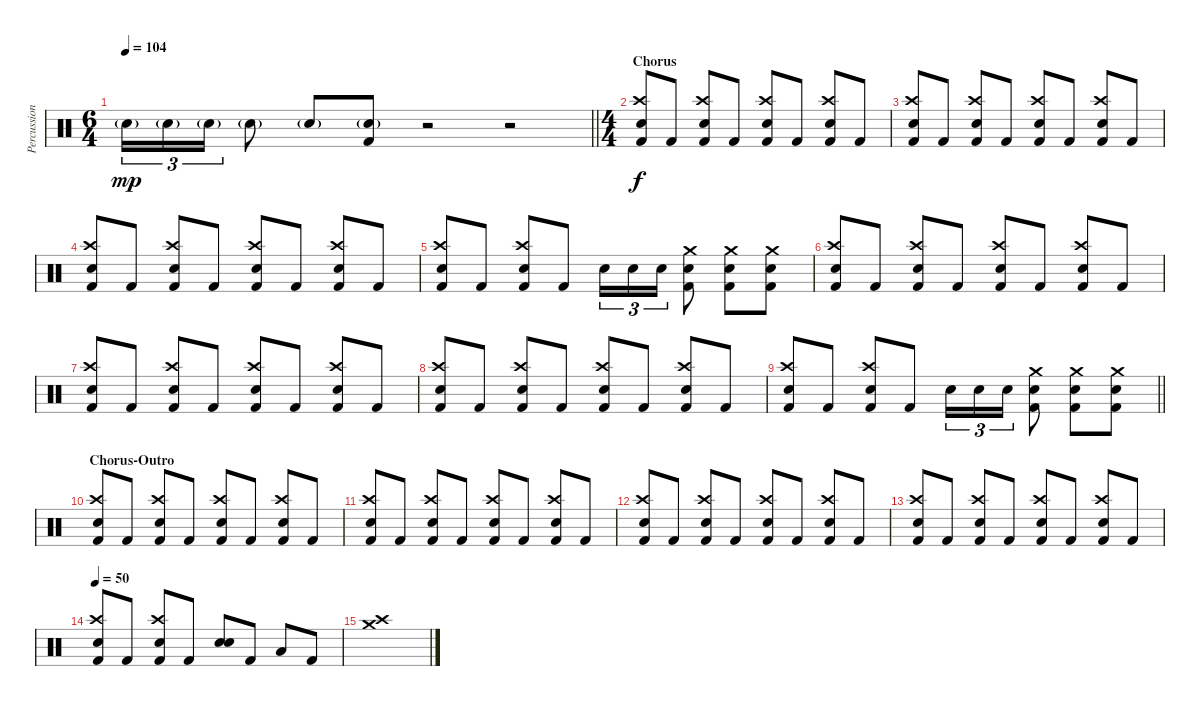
\track ("Percussion" "Percussion") {instrument percussion}
\staff {score}
\articulation defaults
\ts (6 4)
\tempo 104
\clef neutral
\barLineRight lightlight
\ks c "Electric Snare (hit)"{g}.16{tu (3 2) dy mp} "Electric Snare (hit)"{g}.16{tu (3 2)} "Electric Snare (hit)"{g}.16{tu (3 2)} "Electric Snare (hit)"{g}.8 "Electric Snare (hit)"{g}.8
("Electric Snare (hit)"{g} "Kick (hit) 2").8 r.2 r.2 |
\ts (4 4)
\section ("" "Chorus")
("Crash high (hit)" "Snare (hit) 2" "Kick (hit) 2").8{dy f} "Kick (hit) 2".8 ("Crash high (hit)" "Snare (hit) 2" "Kick (hit) 2").8 "Kick (hit) 2".8 ("Crash high (hit)" "Snare (hit) 2" "Kick (hit) 2").8 "Kick (hit) 2".8 ("Crash high (hit)" "Snare (hit) 2" "Kick (hit) 2").8 "Kick (hit) 2".8 |
("Crash high (hit)" "Snare (hit) 2" "Kick (hit) 2").8 "Kick (hit) 2".8 ("Crash high (hit)" "Snare (hit) 2" "Kick (hit) 2").8 "Kick (hit) 2".8 ("Crash high (hit)" "Snare (hit) 2" "Kick (hit) 2").8 "Kick (hit) 2".8 ("Crash high (hit)" "Snare (hit) 2" "Kick (hit) 2").8 "Kick (hit) 2".8 |
("Crash high (hit)" "Snare (hit) 2" "Kick (hit) 2").8 "Kick (hit) 2".8 ("Crash high (hit)" "Snare (hit) 2" "Kick (hit) 2").8 "Kick (hit) 2".8 ("Crash high (hit)" "Snare (hit) 2" "Kick (hit) 2").8 "Kick (hit) 2".8 ("Crash high (hit)" "Snare (hit) 2" "Kick (hit) 2").8 "Kick (hit) 2".8 |
("Crash high (hit)" "Snare (hit) 2" "Kick (hit) 2").8 "Kick (hit) 2".8 ("Crash high (hit)" "Snare (hit) 2" "Kick (hit) 2").8 "Kick (hit) 2".8 "Snare (hit) 2".16{tu (3 2)} "Snare (hit) 2".16{tu (3 2)} "Snare (hit) 2".16{tu (3 2)} ("Crash medium (hit)" "Snare (hit) 2" "Kick (hit) 2").8 ("Crash medium (hit)" "Snare (hit) 2" "Kick (hit) 2").8 ("Crash medium (hit)" "Snare (hit) 2" "Kick (hit) 2").8 |
("Crash high (hit)" "Snare (hit) 2" "Kick (hit) 2").8 "Kick (hit) 2".8 ("Crash high (hit)" "Snare (hit) 2" "Kick (hit) 2").8 "Kick (hit) 2".8 ("Crash high (hit)" "Snare (hit) 2" "Kick (hit) 2").8 "Kick (hit) 2".8 ("Crash high (hit)" "Snare (hit) 2" "Kick (hit) 2").8 "Kick (hit) 2".8 |
("Crash high (hit)" "Snare (hit) 2" "Kick (hit) 2").8 "Kick (hit) 2".8 ("Crash high (hit)" "Snare (hit) 2" "Kick (hit) 2").8 "Kick (hit) 2".8 ("Crash high (hit)" "Snare (hit) 2" "Kick (hit) 2").8 "Kick (hit) 2".8 ("Crash high (hit)" "Snare (hit) 2" "Kick (hit) 2").8 "Kick (hit) 2".8 |
("Crash high (hit)" "Snare (hit) 2" "Kick (hit) 2").8 "Kick (hit) 2".8 ("Crash high (hit)" "Snare (hit) 2" "Kick (hit) 2").8 "Kick (hit) 2".8 ("Crash high (hit)" "Snare (hit) 2" "Kick (hit) 2").8 "Kick (hit) 2".8 ("Crash high (hit)" "Snare (hit) 2" "Kick (hit) 2").8 "Kick (hit) 2".8 |
\barLineRight lightlight
("Crash high (hit)" "Snare (hit) 2" "Kick (hit) 2").8 "Kick (hit) 2".8 ("Crash high (hit)" "Snare (hit) 2" "Kick (hit) 2").8 "Kick (hit) 2".8 "Snare (hit) 2".16{tu (3 2)} "Snare (hit) 2".16{tu (3 2)} "Snare (hit) 2".16{tu (3 2)} ("Crash medium (hit)" "Snare (hit) 2" "Kick (hit) 2").8 ("Crash medium (hit)" "Snare (hit) 2" "Kick (hit) 2").8 ("Crash medium (hit)" "Snare (hit) 2" "Kick (hit) 2").8 |
\section ("" "Chorus-Outro")
("Crash high (hit)" "Snare (hit) 2" "Kick (hit) 2").8 "Kick (hit) 2".8 ("Crash high (hit)" "Snare (hit) 2" "Kick (hit) 2").8 "Kick (hit) 2".8 ("Crash high (hit)" "Snare (hit) 2" "Kick (hit) 2").8 "Kick (hit) 2".8 ("Crash high (hit)" "Snare (hit) 2" "Kick (hit) 2").8 "Kick (hit) 2".8 |
("Crash high (hit)" "Snare (hit) 2" "Kick (hit) 2").8 "Kick (hit) 2".8 ("Crash high (hit)" "Snare (hit) 2" "Kick (hit) 2").8 "Kick (hit) 2".8 ("Crash high (hit)" "Snare (hit) 2" "Kick (hit) 2").8 "Kick (hit) 2".8 ("Crash high (hit)" "Snare (hit) 2" "Kick (hit) 2").8 "Kick (hit) 2".8 |
("Crash high (hit)" "Snare (hit) 2" "Kick (hit) 2").8 "Kick (hit) 2".8 ("Crash high (hit)" "Snare (hit) 2" "Kick (hit) 2").8 "Kick (hit) 2".8 ("Crash high (hit)" "Snare (hit) 2" "Kick (hit) 2").8 "Kick (hit) 2".8 ("Crash high (hit)" "Snare (hit) 2" "Kick (hit) 2").8 "Kick (hit) 2".8 |
("Crash high (hit)" "Snare (hit) 2" "Kick (hit) 2").8 "Kick (hit) 2".8 ("Crash high (hit)" "Snare (hit) 2" "Kick (hit) 2").8 "Kick (hit) 2".8 ("Crash high (hit)" "Snare (hit) 2" "Kick (hit) 2").8 "Kick (hit) 2".8 ("Crash high (hit)" "Snare (hit) 2" "Kick (hit) 2").8 "Kick (hit) 2".8 |
\tempo 50
("Crash high (hit)" "Snare (hit) 2" "Kick (hit) 2").8 "Kick (hit) 2".8 ("Crash high (hit)" "Snare (hit) 2" "Kick (hit) 2").8 "Kick (hit) 2".8 ("Snare (hit) 2" "Electric Snare (hit)").8 "Kick (hit) 2".8 "Low Tom (hit)".8 "Kick (hit) 2".8 |
("Crash medium (hit)" "Crash high (hit)").1
